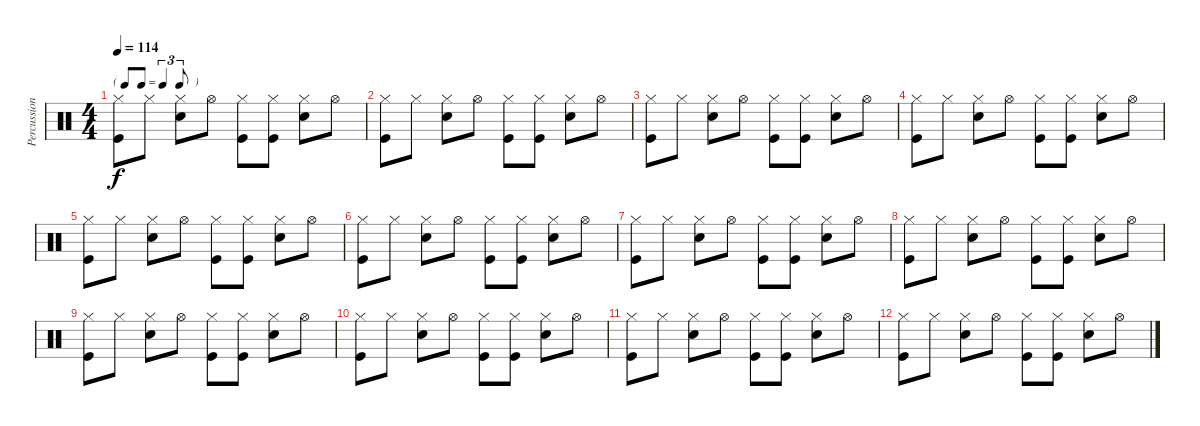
\track ("Percussion" "Percussion") {instrument percussion}
\staff {score}
\articulation defaults
\ts (4 4)
\tf triplet8th
\tempo 114
\clef neutral
\ks c
("Hi-Hat (closed)" "Kick (hit)").8{dy f} "Hi-Hat (closed)".8 ("Hi-Hat (closed)" "Snare (hit) 2").8 "Hi-Hat (open)".8 ("Hi-Hat (closed)" "Kick (hit)").8 ("Hi-Hat (closed)" "Kick (hit)").8 ("Hi-Hat (closed)" "Snare (hit) 2").8 "Hi-Hat (open)".8 |
("Hi-Hat (closed)" "Kick (hit)").8 "Hi-Hat (closed)".8 ("Hi-Hat (closed)" "Snare (hit) 2").8 "Hi-Hat (open)".8 ("Hi-Hat (closed)" "Kick (hit)").8 ("Hi-Hat (closed)" "Kick (hit)").8 ("Hi-Hat (closed)" "Snare (hit) 2").8 "Hi-Hat (open)".8 |
("Hi-Hat (closed)" "Kick (hit)").8 "Hi-Hat (closed)".8 ("Hi-Hat (closed)" "Snare (hit) 2").8 "Hi-Hat (open)".8 ("Hi-Hat (closed)" "Kick (hit)").8 ("Hi-Hat (closed)" "Kick (hit)").8 ("Hi-Hat (closed)" "Snare (hit) 2").8 "Hi-Hat (open)".8 |
("Hi-Hat (closed)" "Kick (hit)").8 "Hi-Hat (closed)".8 ("Hi-Hat (closed)" "Snare (hit) 2").8 "Hi-Hat (open)".8 ("Hi-Hat (closed)" "Kick (hit)").8 ("Hi-Hat (closed)" "Kick (hit)").8 ("Hi-Hat (closed)" "Snare (hit) 2").8 "Hi-Hat (open)".8 |
("Hi-Hat (closed)" "Kick (hit)").8 "Hi-Hat (closed)".8 ("Hi-Hat (closed)" "Snare (hit) 2").8 "Hi-Hat (open)".8 ("Hi-Hat (closed)" "Kick (hit)").8 ("Hi-Hat (closed)" "Kick (hit)").8 ("Hi-Hat (closed)" "Snare (hit) 2").8 "Hi-Hat (open)".8 |
("Hi-Hat (closed)" "Kick (hit)").8 "Hi-Hat (closed)".8 ("Hi-Hat (closed)" "Snare (hit) 2").8 "Hi-Hat (open)".8 ("Hi-Hat (closed)" "Kick (hit)").8 ("Hi-Hat (closed)" "Kick (hit)").8 ("Hi-Hat (closed)" "Snare (hit) 2").8 "Hi-Hat (open)".8 |
("Hi-Hat (closed)" "Kick (hit)").8 "Hi-Hat (closed)".8 ("Hi-Hat (closed)" "Snare (hit) 2").8 "Hi-Hat (open)".8 ("Hi-Hat (closed)" "Kick (hit)").8 ("Hi-Hat (closed)" "Kick (hit)").8 ("Hi-Hat (closed)" "Snare (hit) 2").8 "Hi-Hat (open)".8 |
("Hi-Hat (closed)" "Kick (hit)").8 "Hi-Hat (closed)".8 ("Hi-Hat (closed)" "Snare (hit) 2").8 "Hi-Hat (open)".8 ("Hi-Hat (closed)" "Kick (hit)").8 ("Hi-Hat (closed)" "Kick (hit)").8 ("Hi-Hat (closed)" "Snare (hit) 2").8 "Hi-Hat (open)".8 |
("Hi-Hat (closed)" "Kick (hit)").8 "Hi-Hat (closed)".8 ("Hi-Hat (closed)" "Snare (hit) 2").8 "Hi-Hat (open)".8 ("Hi-Hat (closed)" "Kick (hit)").8 ("Hi-Hat (closed)" "Kick (hit)").8 ("Hi-Hat (closed)" "Snare (hit) 2").8 "Hi-Hat (open)".8 |
("Hi-Hat (closed)" "Kick (hit)").8 "Hi-Hat (closed)".8 ("Hi-Hat (closed)" "Snare (hit) 2").8 "Hi-Hat (open)".8 ("Hi-Hat (closed)" "Kick (hit)").8 ("Hi-Hat (closed)" "Kick (hit)").8 ("Hi-Hat (closed)" "Snare (hit) 2").8 "Hi-Hat (open)".8 |
("Hi-Hat (closed)" "Kick (hit)").8 "Hi-Hat (closed)".8 ("Hi-Hat (closed)" "Snare (hit) 2").8 "Hi-Hat (open)".8 ("Hi-Hat (closed)" "Kick (hit)").8 ("Hi-Hat (closed)" "Kick (hit)").8 ("Hi-Hat (closed)" "Snare (hit) 2").8 "Hi-Hat (open)".8 |
("Hi-Hat (closed)" "Kick (hit)").8 "Hi-Hat (closed)".8 ("Hi-Hat (closed)" "Snare (hit) 2").8 "Hi-Hat (open)".8 ("Hi-Hat (closed)" "Kick (hit)").8 ("Hi-Hat (closed)" "Kick (hit)").8 ("Hi-Hat (closed)" "Snare (hit) 2").8 "Hi-Hat (open)".8
